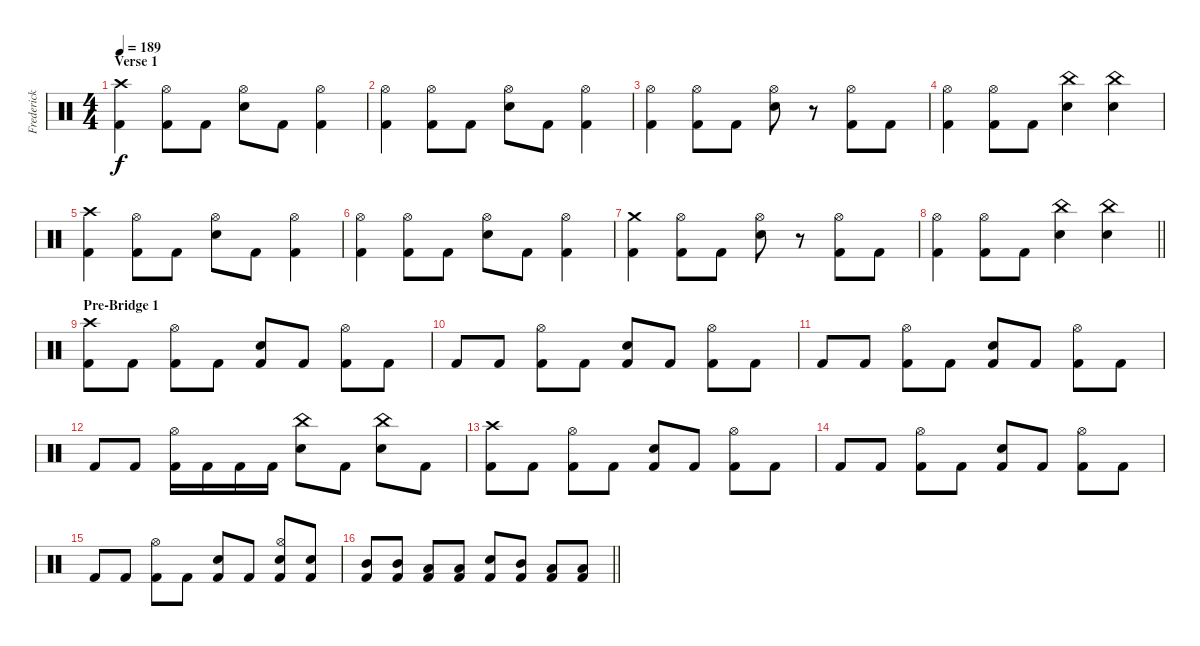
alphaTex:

\track ("Frederick Ehmke" "Frederick ") {instrument percussion}
\staff {score}
\articulation defaults
\ts (4 4)
\section ("" "Verse 1")
\tempo 189
\clef neutral
\ks c
("Kick (hit) 2" "Crash high (hit)").4{dy f} ("Kick (hit) 2" "Hi-Hat (open)").8 "Kick (hit) 2".8 ("Electric Snare (hit)" "Hi-Hat (open)").8 "Kick (hit) 2".8 ("Kick (hit) 2" "Hi-Hat (open)").4 |
("Kick (hit) 2" "Hi-Hat (open)").4 ("Kick (hit) 2" "Hi-Hat (open)").8 "Kick (hit) 2".8 ("Electric Snare (hit)" "Hi-Hat (open)").8 "Kick (hit) 2".8 ("Kick (hit) 2" "Hi-Hat (open)").4 |
("Kick (hit) 2" "Hi-Hat (open)").4 ("Kick (hit) 2" "Hi-Hat (open)").8 "Kick (hit) 2".8 ("Electric Snare (hit)" "Hi-Hat (open)").8 r.8 ("Kick (hit) 2" "Hi-Hat (open)").8 "Kick (hit) 2".8 |
("Kick (hit) 2" "Hi-Hat (open)").4 ("Kick (hit) 2" "Hi-Hat (open)").8 "Kick (hit) 2".8 ("Electric Snare (hit)" "China (hit)").4 ("Electric Snare (hit)" "China (hit)").4 |
("Kick (hit) 2" "Crash high (hit)").4 ("Kick (hit) 2" "Hi-Hat (open)").8 "Kick (hit) 2".8 ("Electric Snare (hit)" "Hi-Hat (open)").8 "Kick (hit) 2".8 ("Kick (hit) 2" "Hi-Hat (open)").4 |
("Kick (hit) 2" "Hi-Hat (open)").4 ("Kick (hit) 2" "Hi-Hat (open)").8 "Kick (hit) 2".8 ("Electric Snare (hit)" "Hi-Hat (open)").8 "Kick (hit) 2".8 ("Kick (hit) 2" "Hi-Hat (open)").4 |
("Kick (hit) 2" "Crash medium (hit)").4 ("Kick (hit) 2" "Hi-Hat (open)").8 "Kick (hit) 2".8 ("Electric Snare (hit)" "Hi-Hat (open)").8 r.8 ("Kick (hit) 2" "Hi-Hat (open)").8 "Kick (hit) 2".8 |
\barLineRight lightlight
("Kick (hit) 2" "Hi-Hat (open)").4 ("Kick (hit) 2" "Hi-Hat (open)").8 "Kick (hit) 2".8 ("Electric Snare (hit)" "China (hit)").4 ("Electric Snare (hit)" "China (hit)").4 |
\section ("" "Pre-Bridge 1")
("Kick (hit) 2" "Crash high (hit)").8 "Kick (hit) 2".8 ("Kick (hit) 2" "Hi-Hat (open)").8 "Kick (hit) 2".8 ("Electric Snare (hit)" "Kick (hit) 2").8 "Kick (hit) 2".8 ("Kick (hit) 2" "Hi-Hat (open)").8 "Kick (hit) 2".8 |
"Kick (hit) 2".8 "Kick (hit) 2".8 ("Kick (hit) 2" "Hi-Hat (open)").8 "Kick (hit) 2".8 ("Electric Snare (hit)" "Kick (hit) 2").8 "Kick (hit) 2".8 ("Kick (hit) 2" "Hi-Hat (open)").8 "Kick (hit) 2".8 |
"Kick (hit) 2".8 "Kick (hit) 2".8 ("Kick (hit) 2" "Hi-Hat (open)").8 "Kick (hit) 2".8 ("Electric Snare (hit)" "Kick (hit) 2").8 "Kick (hit) 2".8 ("Kick (hit) 2" "Hi-Hat (open)").8 "Kick (hit) 2".8 |
"Kick (hit) 2".8 "Kick (hit) 2".8 ("Kick (hit) 2" "Hi-Hat (open)").16 "Kick (hit) 2".16 "Kick (hit) 2".16 "Kick (hit) 2".16 ("Electric Snare (hit)" "China (hit)").8 "Kick (hit) 2".8 ("Electric Snare (hit)" "China (hit)").8 "Kick (hit) 2".8 |
("Kick (hit) 2" "Crash high (hit)").8 "Kick (hit) 2".8 ("Kick (hit) 2" "Hi-Hat (open)").8 "Kick (hit) 2".8 ("Electric Snare (hit)" "Kick (hit) 2").8 "Kick (hit) 2".8 ("Kick (hit) 2" "Hi-Hat (open)").8 "Kick (hit) 2".8 |
"Kick (hit) 2".8 "Kick (hit) 2".8 ("Kick (hit) 2" "Hi-Hat (open)").8 "Kick (hit) 2".8 ("Electric Snare (hit)" "Kick (hit) 2").8 "Kick (hit) 2".8 ("Kick (hit) 2" "Hi-Hat (open)").8 "Kick (hit) 2".8 |
"Kick (hit) 2".8 "Kick (hit) 2".8 ("Kick (hit) 2" "Hi-Hat (open)").8 "Kick (hit) 2".8 ("Electric Snare (hit)" "Kick (hit) 2").8 "Kick (hit) 2".8 ("Electric Snare (hit)" "Kick (hit) 2" "Hi-Hat (open)").8 ("Electric Snare (hit)" "Kick (hit) 2").8 |
\barLineRight lightlight
("Kick (hit) 2" "Mid Tom (hit)").8 ("Kick (hit) 2" "Mid Tom (hit)").8 ("Kick (hit) 2" "Low Tom (hit)").8 ("Kick (hit) 2" "Low Tom (hit)").8 ("Electric Snare (hit)" "Kick (hit) 2").8 ("Kick (hit) 2" "Mid Tom (hit)").8 ("Kick (hit) 2" "Low Tom (hit)").8 ("Kick (hit) 2" "Low Tom (hit)").8
